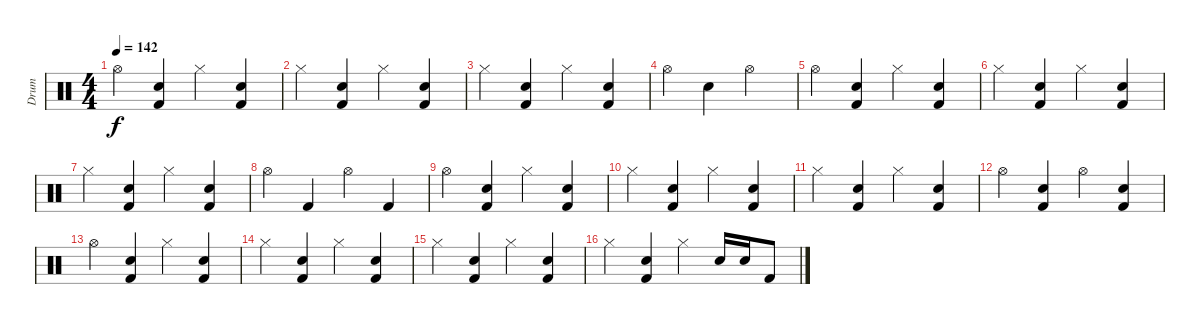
\track ("Drum" "Drum") {instrument percussion}
\staff {score}
\articulation defaults
\ts (4 4)
\tempo 142
\clef neutral
\ks c "Hi-Hat (open)".4{dy f}
("Electric Snare (hit)" "Kick (hit) 2").4 "Hi-Hat (closed)".4 ("Electric Snare (hit)" "Kick (hit) 2").4 |
"Hi-Hat (closed)".4 ("Electric Snare (hit)" "Kick (hit) 2").4 "Hi-Hat (closed)".4 ("Electric Snare (hit)" "Kick (hit) 2").4 |
"Hi-Hat (closed)".4 ("Electric Snare (hit)" "Kick (hit) 2").4 "Hi-Hat (closed)".4 ("Electric Snare (hit)" "Kick (hit) 2").4 |
"Hi-Hat (open)".4 "Electric Snare (hit)".4 "Hi-Hat (open)".2 |
"Hi-Hat (open)".4 ("Electric Snare (hit)" "Kick (hit) 2").4 "Hi-Hat (closed)".4 ("Electric Snare (hit)" "Kick (hit) 2").4 |
"Hi-Hat (closed)".4 ("Electric Snare (hit)" "Kick (hit) 2").4 "Hi-Hat (closed)".4 ("Electric Snare (hit)" "Kick (hit) 2").4 |
"Hi-Hat (closed)".4 ("Electric Snare (hit)" "Kick (hit) 2").4 "Hi-Hat (closed)".4 ("Electric Snare (hit)" "Kick (hit) 2").4 |
"Hi-Hat (open)".4 "Kick (hit) 2".4 "Hi-Hat (open)".4 "Kick (hit) 2".4 |
"Hi-Hat (open)".4 ("Electric Snare (hit)" "Kick (hit) 2").4 "Hi-Hat (closed)".4 ("Electric Snare (hit)" "Kick (hit) 2").4 |
"Hi-Hat (closed)".4 ("Electric Snare (hit)" "Kick (hit) 2").4 "Hi-Hat (closed)".4 ("Electric Snare (hit)" "Kick (hit) 2").4 |
"Hi-Hat (closed)".4 ("Electric Snare (hit)" "Kick (hit) 2").4 "Hi-Hat (closed)".4 ("Electric Snare (hit)" "Kick (hit) 2").4 |
"Hi-Hat (open)".4 ("Electric Snare (hit)" "Kick (hit) 2").4 "Hi-Hat (open)".4 ("Electric Snare (hit)" "Kick (hit) 2").4 |
"Hi-Hat (open)".4 ("Electric Snare (hit)" "Kick (hit) 2").4 "Hi-Hat (closed)".4 ("Electric Snare (hit)" "Kick (hit) 2").4 |
"Hi-Hat (closed)".4 ("Electric Snare (hit)" "Kick (hit) 2").4 "Hi-Hat (closed)".4 ("Electric Snare (hit)" "Kick (hit) 2").4 |
"Hi-Hat (closed)".4 ("Electric Snare (hit)" "Kick (hit) 2").4 "Hi-Hat (closed)".4 ("Electric Snare (hit)" "Kick (hit) 2").4 |
"Hi-Hat (closed)".4 ("Electric Snare (hit)" "Kick (hit) 2").4 "Hi-Hat (closed)".4 "Electric Snare (hit)".16 "Electric Snare (hit)".16 "Kick (hit) 2".8
